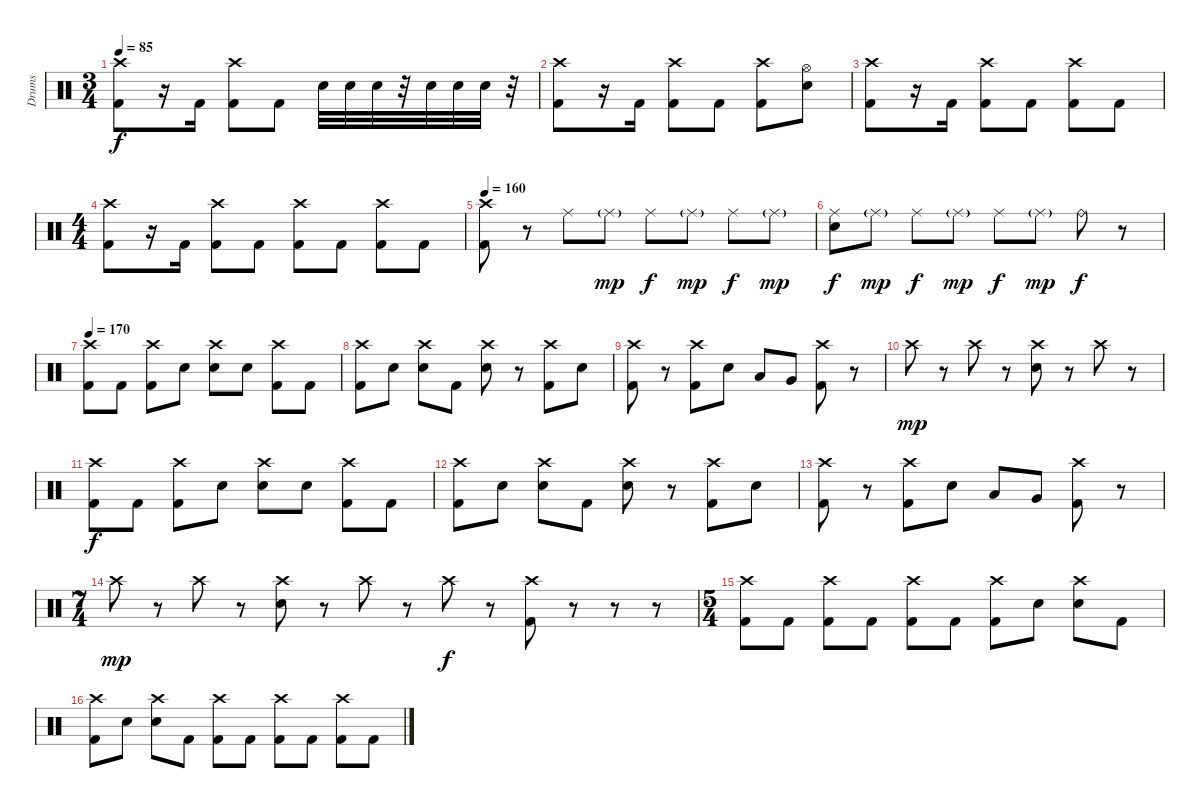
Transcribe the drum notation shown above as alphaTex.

\track ("Drums" "Drums") {instrument percussion}
\staff {score}
\articulation defaults
\ts (3 4)
\tempo 85
\clef neutral
\ks c
("Kick (hit) 2" "Crash high (hit)").8{dy f} r.16 "Kick (hit) 2".16 ("Kick (hit) 2" "Crash high (hit)").8 "Kick (hit) 2".8 "Electric Snare (hit)".32 "Electric Snare (hit)".32 "Electric Snare (hit)".32 r.32 "Electric Snare (hit)".32 "Electric Snare (hit)".32 "Electric Snare (hit)".32 r.32 |
("Kick (hit) 2" "Crash high (hit)").8 r.16 "Kick (hit) 2".16 ("Kick (hit) 2" "Crash high (hit)").8 "Kick (hit) 2".8 ("Kick (hit) 2" "Crash high (hit)").8 ("Electric Snare (hit)" "Hi-Hat (open)").8 |
("Kick (hit) 2" "Crash high (hit)").8 r.16 "Kick (hit) 2".16 ("Kick (hit) 2" "Crash high (hit)").8 "Kick (hit) 2".8 ("Kick (hit) 2" "Crash high (hit)").8 "Kick (hit) 2".8 |
\ts (4 4)
("Kick (hit) 2" "Crash high (hit)").8 r.16 "Kick (hit) 2".16 ("Kick (hit) 2" "Crash high (hit)").8 "Kick (hit) 2".8 ("Kick (hit) 2" "Crash high (hit)").8 "Kick (hit) 2".8 ("Kick (hit) 2" "Crash high (hit)").8 "Kick (hit) 2".8 |
\tempo 160
("Kick (hit) 2" "Crash high (hit)").8 r.8 "Ride (middle)".8 "Ride (middle)"{g}.8{dy mp} "Ride (middle)".8{dy f} "Ride (middle)"{g}.8{dy mp} "Ride (middle)".8{dy f} "Ride (middle)"{g}.8{dy mp} |
("Electric Snare (hit)" "Ride (middle)").8{dy f} "Ride (middle)"{g}.8{dy mp} "Ride (middle)".8{dy f} "Ride (middle)"{g}.8{dy mp} "Ride (middle)".8{dy f} "Ride (middle)"{g}.8{dy mp} "Ride (bell)".8{dy f} r.8 |
\tempo 170
("Kick (hit) 2" "Crash high (hit)").8 "Kick (hit) 2".8 ("Kick (hit) 2" "Crash high (hit)").8 "Electric Snare (hit)".8 ("Electric Snare (hit)" "Crash high (hit)").8 "Electric Snare (hit)".8 ("Kick (hit) 2" "Crash high (hit)").8 "Kick (hit) 2".8 |
("Kick (hit) 2" "Crash high (hit)").8 "Electric Snare (hit)".8 ("Electric Snare (hit)" "Crash high (hit)").8 "Kick (hit) 2".8 ("Electric Snare (hit)" "Crash high (hit)").8 r.8 ("Kick (hit) 2" "Crash high (hit)").8 "Electric Snare (hit)".8 |
("Kick (hit) 2" "Crash high (hit)").8 r.8 ("Kick (hit) 2" "Crash high (hit)").8 "Electric Snare (hit)".8 "Low Tom (hit)".8 "Very Low Tom (hit)".8 ("Kick (hit) 2" "Crash high (hit)").8 r.8 |
"Crash high (hit)".8{dy mp} r.8 "Crash high (hit)".8 r.8 ("Electric Snare (hit)" "Crash high (hit)").8 r.8 "Crash high (hit)".8 r.8 |
("Kick (hit) 2" "Crash high (hit)").8{dy f} "Kick (hit) 2".8 ("Kick (hit) 2" "Crash high (hit)").8 "Electric Snare (hit)".8 ("Electric Snare (hit)" "Crash high (hit)").8 "Electric Snare (hit)".8 ("Kick (hit) 2" "Crash high (hit)").8 "Kick (hit) 2".8 |
("Kick (hit) 2" "Crash high (hit)").8 "Electric Snare (hit)".8 ("Electric Snare (hit)" "Crash high (hit)").8 "Kick (hit) 2".8 ("Electric Snare (hit)" "Crash high (hit)").8 r.8 ("Kick (hit) 2" "Crash high (hit)").8 "Electric Snare (hit)".8 |
("Kick (hit) 2" "Crash high (hit)").8 r.8 ("Kick (hit) 2" "Crash high (hit)").8 "Electric Snare (hit)".8 "Low Tom (hit)".8 "Very Low Tom (hit)".8 ("Kick (hit) 2" "Crash high (hit)").8 r.8 |
\ts (7 4)
"Crash high (hit)".8{dy mp} r.8 "Crash high (hit)".8 r.8 ("Electric Snare (hit)" "Crash high (hit)").8 r.8 "Crash high (hit)".8 r.8 "Crash high (hit)".8{dy f} r.8 ("Kick (hit) 2" "Crash high (hit)").8 r.8{volume 0} r.8 r.8 |
\ts (5 4)
("Crash high (hit)" "Kick (hit) 2").8{volume 16} "Kick (hit) 2".8 ("Crash high (hit)" "Kick (hit) 2").8 "Kick (hit) 2".8 ("Crash high (hit)" "Kick (hit) 2").8 "Kick (hit) 2".8 ("Crash high (hit)" "Kick (hit) 2").8 "Electric Snare (hit)".8 ("Crash high (hit)" "Electric Snare (hit)").8 "Kick (hit) 2".8 |
("Crash high (hit)" "Kick (hit) 2").8 "Electric Snare (hit)".8 ("Crash high (hit)" "Electric Snare (hit)").8 "Kick (hit) 2".8 ("Crash high (hit)" "Kick (hit) 2").8 "Kick (hit) 2".8 ("Crash high (hit)" "Kick (hit) 2").8 "Kick (hit) 2".8 ("Crash high (hit)" "Kick (hit) 2").8 "Kick (hit) 2".8
